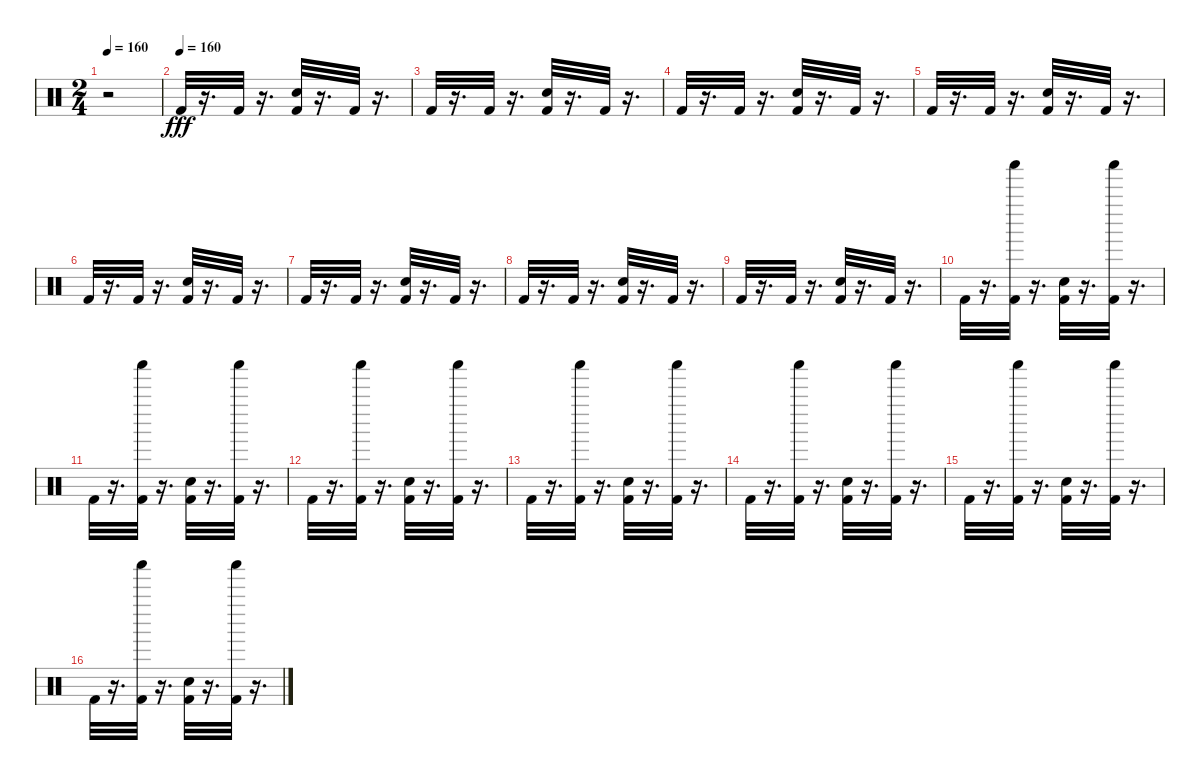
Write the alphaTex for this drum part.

\track "" {instrument percussion}
\staff {score}
\articulation defaults
\ts (2 4)
\tempo 160
\clef neutral
\ks c
r.2{dy fff} |
\tempo (160)
"Kick (hit) 2".32{balance 8} r.16{d} "Kick (hit) 2".32 r.16{d} ("Kick (hit) 2" "Snare (hit) 2").32 r.16{d} "Kick (hit) 2".32 r.16{d} |
"Kick (hit) 2".32 r.16{d} "Kick (hit) 2".32 r.16{d} ("Snare (hit) 2" "Kick (hit) 2").32 r.16{d} "Kick (hit) 2".32 r.16{d} |
"Kick (hit) 2".32 r.16{d} "Kick (hit) 2".32 r.16{d} ("Kick (hit) 2" "Snare (hit) 2").32 r.16{d} "Kick (hit) 2".32 r.16{d} |
"Kick (hit) 2".32 r.16{d} "Kick (hit) 2".32 r.16{d} ("Kick (hit) 2" "Snare (hit) 2").32 r.16{d} "Kick (hit) 2".32 r.16{d} |
"Kick (hit) 2".32 r.16{d} "Kick (hit) 2".32 r.16{d} ("Kick (hit) 2" "Snare (hit) 2").32 r.16{d} "Kick (hit) 2".32 r.16{d} |
"Kick (hit) 2".32 r.16{d} "Kick (hit) 2".32 r.16{d} ("Kick (hit) 2" "Snare (hit) 2").32 r.16{d} "Kick (hit) 2".32 r.16{d} |
"Kick (hit) 2".32 r.16{d} "Kick (hit) 2".32 r.16{d} ("Kick (hit) 2" "Snare (hit) 2").32 r.16{d} "Kick (hit) 2".32 r.16{d} |
"Kick (hit) 2".32 r.16{d} "Kick (hit) 2".32 r.16{d} ("Kick (hit) 2" "Snare (hit) 2").32 r.16{d} "Kick (hit) 2".32 r.16{d} |
"Kick (hit) 2".32 r.16{d} ("Shaker (hit)" "Kick (hit) 2").32 r.16{d} ("Kick (hit) 2" "Snare (hit) 2").32 r.16{d} ("Shaker (hit)" "Kick (hit) 2").32 r.16{d} |
"Kick (hit) 2".32 r.16{d} ("Shaker (hit)" "Kick (hit) 2").32 r.16{d} ("Snare (hit) 2" "Kick (hit) 2").32 r.16{d} ("Shaker (hit)" "Kick (hit) 2").32 r.16{d} |
"Kick (hit) 2".32 r.16{d} ("Shaker (hit)" "Kick (hit) 2").32 r.16{d} ("Kick (hit) 2" "Snare (hit) 2").32 r.16{d} ("Shaker (hit)" "Kick (hit) 2").32 r.16{d} |
"Kick (hit) 2".32 r.16{d} ("Shaker (hit)" "Kick (hit) 2").32 r.16{d} ("Kick (hit) 2" "Snare (hit) 2").32 r.16{d} ("Shaker (hit)" "Kick (hit) 2").32 r.16{d} |
"Kick (hit) 2".32 r.16{d} ("Shaker (hit)" "Kick (hit) 2").32 r.16{d} ("Kick (hit) 2" "Snare (hit) 2").32 r.16{d} ("Shaker (hit)" "Kick (hit) 2").32 r.16{d} |
"Kick (hit) 2".32 r.16{d} ("Shaker (hit)" "Kick (hit) 2").32 r.16{d} ("Kick (hit) 2" "Snare (hit) 2").32 r.16{d} ("Shaker (hit)" "Kick (hit) 2").32 r.16{d} |
"Kick (hit) 2".32 r.16{d} ("Shaker (hit)" "Kick (hit) 2").32 r.16{d} ("Kick (hit) 2" "Snare (hit) 2").32 r.16{d} ("Shaker (hit)" "Kick (hit) 2").32 r.16{d}
